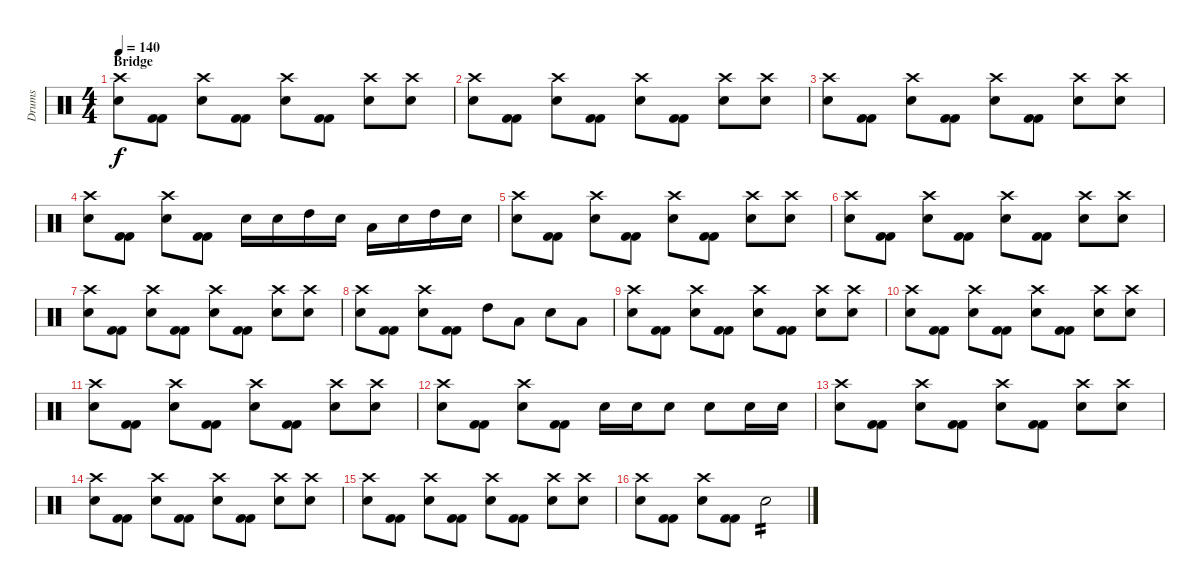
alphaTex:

\track ("Drums" "Drums") {instrument percussion}
\staff {score}
\articulation defaults
\ts (4 4)
\section ("" "Bridge ")
\tempo 140
\clef neutral
\ks c
("Crash high (hit)" "Electric Snare (hit)").8{dy f} ("Kick (hit) 2" "Kick (hit) 2").8 ("Electric Snare (hit)" "Crash high (hit)").8 ("Kick (hit) 2" "Kick (hit) 2").8 ("Electric Snare (hit)" "Crash high (hit)").8 ("Kick (hit) 2" "Kick (hit) 2").8 ("Electric Snare (hit)" "Crash high (hit)").8 ("Crash high (hit)" "Electric Snare (hit)").8 |
("Crash high (hit)" "Electric Snare (hit)").8 ("Kick (hit) 2" "Kick (hit) 2").8 ("Electric Snare (hit)" "Crash high (hit)").8 ("Kick (hit) 2" "Kick (hit) 2").8 ("Electric Snare (hit)" "Crash high (hit)").8 ("Kick (hit) 2" "Kick (hit) 2").8 ("Electric Snare (hit)" "Crash high (hit)").8 ("Crash high (hit)" "Electric Snare (hit)").8 |
("Crash high (hit)" "Electric Snare (hit)").8 ("Kick (hit) 2" "Kick (hit) 2").8 ("Electric Snare (hit)" "Crash high (hit)").8 ("Kick (hit) 2" "Kick (hit) 2").8 ("Electric Snare (hit)" "Crash high (hit)").8 ("Kick (hit) 2" "Kick (hit) 2").8 ("Electric Snare (hit)" "Crash high (hit)").8 ("Crash high (hit)" "Electric Snare (hit)").8 |
("Crash high (hit)" "Electric Snare (hit)").8 ("Kick (hit) 2" "Kick (hit) 2").8 ("Electric Snare (hit)" "Crash high (hit)").8 ("Kick (hit) 2" "Kick (hit) 2").8 "Electric Snare (hit)".16 "Electric Snare (hit)".16 "High Tom (hit)".16 "Electric Snare (hit)".16 "Low Tom (hit)".16 "Electric Snare (hit)".16 "High Tom (hit)".16 "Electric Snare (hit)".16 |
("Crash high (hit)" "Electric Snare (hit)").8 ("Kick (hit) 2" "Kick (hit) 2").8 ("Electric Snare (hit)" "Crash high (hit)").8 ("Kick (hit) 2" "Kick (hit) 2").8 ("Electric Snare (hit)" "Crash high (hit)").8 ("Kick (hit) 2" "Kick (hit) 2").8 ("Electric Snare (hit)" "Crash high (hit)").8 ("Crash high (hit)" "Electric Snare (hit)").8 |
("Crash high (hit)" "Electric Snare (hit)").8 ("Kick (hit) 2" "Kick (hit) 2").8 ("Electric Snare (hit)" "Crash high (hit)").8 ("Kick (hit) 2" "Kick (hit) 2").8 ("Electric Snare (hit)" "Crash high (hit)").8 ("Kick (hit) 2" "Kick (hit) 2").8 ("Electric Snare (hit)" "Crash high (hit)").8 ("Crash high (hit)" "Electric Snare (hit)").8 |
("Crash high (hit)" "Electric Snare (hit)").8 ("Kick (hit) 2" "Kick (hit) 2").8 ("Electric Snare (hit)" "Crash high (hit)").8 ("Kick (hit) 2" "Kick (hit) 2").8 ("Electric Snare (hit)" "Crash high (hit)").8 ("Kick (hit) 2" "Kick (hit) 2").8 ("Electric Snare (hit)" "Crash high (hit)").8 ("Crash high (hit)" "Electric Snare (hit)").8 |
("Crash high (hit)" "Electric Snare (hit)").8 ("Kick (hit) 2" "Kick (hit) 2").8 ("Electric Snare (hit)" "Crash high (hit)").8 ("Kick (hit) 2" "Kick (hit) 2").8 "High Tom (hit)".8 "Low Tom (hit)".8 "Electric Snare (hit)".8 "Low Tom (hit)".8 |
("Crash high (hit)" "Electric Snare (hit)").8 ("Kick (hit) 2" "Kick (hit) 2").8 ("Electric Snare (hit)" "Crash high (hit)").8 ("Kick (hit) 2" "Kick (hit) 2").8 ("Electric Snare (hit)" "Crash high (hit)").8 ("Kick (hit) 2" "Kick (hit) 2").8 ("Electric Snare (hit)" "Crash high (hit)").8 ("Crash high (hit)" "Electric Snare (hit)").8 |
("Crash high (hit)" "Electric Snare (hit)").8 ("Kick (hit) 2" "Kick (hit) 2").8 ("Electric Snare (hit)" "Crash high (hit)").8 ("Kick (hit) 2" "Kick (hit) 2").8 ("Electric Snare (hit)" "Crash high (hit)").8 ("Kick (hit) 2" "Kick (hit) 2").8 ("Electric Snare (hit)" "Crash high (hit)").8 ("Crash high (hit)" "Electric Snare (hit)").8 |
("Crash high (hit)" "Electric Snare (hit)").8 ("Kick (hit) 2" "Kick (hit) 2").8 ("Electric Snare (hit)" "Crash high (hit)").8 ("Kick (hit) 2" "Kick (hit) 2").8 ("Electric Snare (hit)" "Crash high (hit)").8 ("Kick (hit) 2" "Kick (hit) 2").8 ("Electric Snare (hit)" "Crash high (hit)").8 ("Crash high (hit)" "Electric Snare (hit)").8 |
("Crash high (hit)" "Electric Snare (hit)").8 ("Kick (hit) 2" "Kick (hit) 2").8 ("Electric Snare (hit)" "Crash high (hit)").8 ("Kick (hit) 2" "Kick (hit) 2").8 "Electric Snare (hit)".16 "Electric Snare (hit)".16 "Electric Snare (hit)".8 "Electric Snare (hit)".8 "Electric Snare (hit)".16 "Electric Snare (hit)".16 |
("Crash high (hit)" "Electric Snare (hit)").8 ("Kick (hit) 2" "Kick (hit) 2").8 ("Electric Snare (hit)" "Crash high (hit)").8 ("Kick (hit) 2" "Kick (hit) 2").8 ("Electric Snare (hit)" "Crash high (hit)").8 ("Kick (hit) 2" "Kick (hit) 2").8 ("Electric Snare (hit)" "Crash high (hit)").8 ("Crash high (hit)" "Electric Snare (hit)").8 |
("Crash high (hit)" "Electric Snare (hit)").8 ("Kick (hit) 2" "Kick (hit) 2").8 ("Electric Snare (hit)" "Crash high (hit)").8 ("Kick (hit) 2" "Kick (hit) 2").8 ("Electric Snare (hit)" "Crash high (hit)").8 ("Kick (hit) 2" "Kick (hit) 2").8 ("Electric Snare (hit)" "Crash high (hit)").8 ("Crash high (hit)" "Electric Snare (hit)").8 |
("Crash high (hit)" "Electric Snare (hit)").8 ("Kick (hit) 2" "Kick (hit) 2").8 ("Electric Snare (hit)" "Crash high (hit)").8 ("Kick (hit) 2" "Kick (hit) 2").8 ("Electric Snare (hit)" "Crash high (hit)").8 ("Kick (hit) 2" "Kick (hit) 2").8 ("Electric Snare (hit)" "Crash high (hit)").8 ("Crash high (hit)" "Electric Snare (hit)").8 |
("Crash high (hit)" "Electric Snare (hit)").8 ("Kick (hit) 2" "Kick (hit) 2").8 ("Electric Snare (hit)" "Crash high (hit)").8 ("Kick (hit) 2" "Kick (hit) 2").8 "Electric Snare (hit)".2{tp 2}
